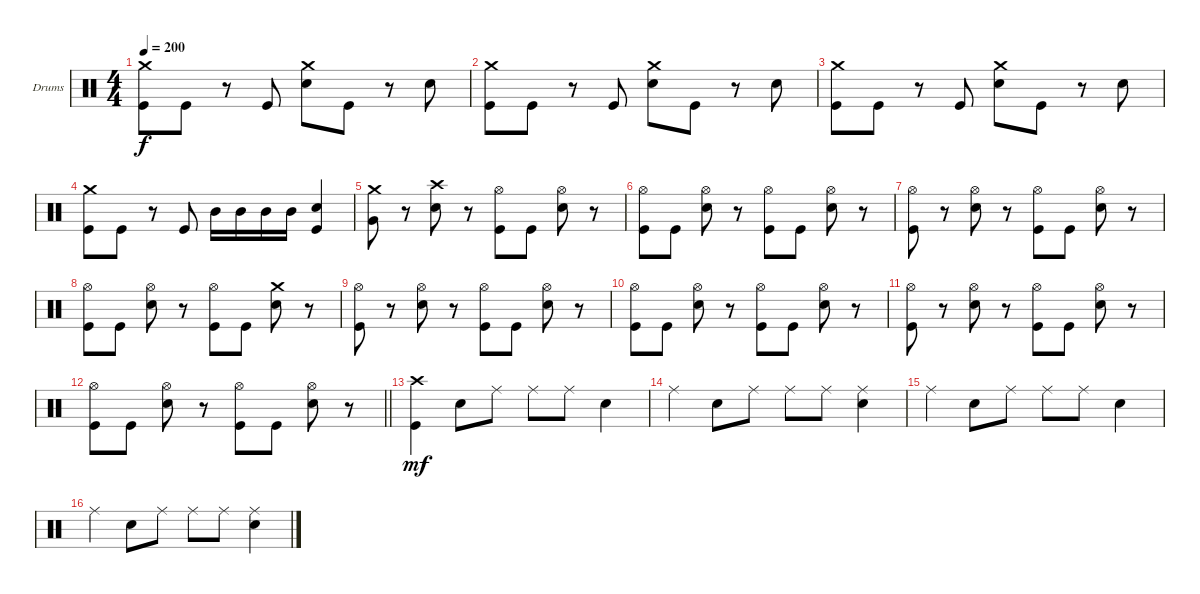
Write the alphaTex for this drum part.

\bracketExtendMode groupsimilarinstruments
\firstSystemTrackNameOrientation horizontal
\otherSystemsTrackNameOrientation horizontal
\track ("Drumkit" "Drums") {instrument percussion}
\staff {score}
\articulation defaults
\ts (4 4)
\tempo 200
\clef neutral
\ks c
("Crash medium (hit)" "Kick (hit)").8{dy f} "Kick (hit)".8 r.8 "Kick (hit)".8 ("Crash medium (hit)" "Snare (hit) 2").8 "Kick (hit)".8 r.8 "Snare (hit) 2".8 |
("Crash medium (hit)" "Kick (hit)").8 "Kick (hit)".8 r.8 "Kick (hit)".8 ("Crash medium (hit)" "Snare (hit) 2").8 "Kick (hit)".8 r.8 "Snare (hit) 2".8 |
("Crash medium (hit)" "Kick (hit)").8 "Kick (hit)".8 r.8 "Kick (hit)".8 ("Crash medium (hit)" "Snare (hit) 2").8 "Kick (hit)".8 r.8 "Snare (hit) 2".8 |
("Crash medium (hit)" "Kick (hit)").8 "Kick (hit)".8 r.8 "Kick (hit)".8 "Mid Tom (hit)".16 "Mid Tom (hit)".16 "Mid Tom (hit)".16 "Mid Tom (hit)".16 ("Snare (hit) 2" "Kick (hit)").4 |
("Crash medium (hit)" "Very Low Tom (hit)").8 r.8 ("Snare (hit) 2" "Crash high (hit)").8 r.8 ("Hi-Hat (open)" "Kick (hit)").8 "Kick (hit)".8 ("Snare (hit) 2" "Hi-Hat (open)").8 r.8 |
("Hi-Hat (open)" "Kick (hit)").8 "Kick (hit)".8 ("Snare (hit) 2" "Hi-Hat (open)").8 r.8 ("Hi-Hat (open)" "Kick (hit)").8 "Kick (hit)".8 ("Snare (hit) 2" "Hi-Hat (open)").8 r.8 |
("Hi-Hat (open)" "Kick (hit)").8 r.8 ("Snare (hit) 2" "Hi-Hat (open)").8 r.8 ("Hi-Hat (open)" "Kick (hit)").8 "Kick (hit)".8 ("Snare (hit) 2" "Hi-Hat (open)").8 r.8 |
("Hi-Hat (open)" "Kick (hit)").8 "Kick (hit)".8 ("Snare (hit) 2" "Hi-Hat (open)").8 r.8 ("Hi-Hat (open)" "Kick (hit)").8 "Kick (hit)".8 ("Snare (hit) 2" "Crash medium (hit)").8 r.8 |
("Hi-Hat (open)" "Kick (hit)").8 r.8 ("Snare (hit) 2" "Hi-Hat (open)").8 r.8 ("Hi-Hat (open)" "Kick (hit)").8 "Kick (hit)".8 ("Snare (hit) 2" "Hi-Hat (open)").8 r.8 |
("Hi-Hat (open)" "Kick (hit)").8 "Kick (hit)".8 ("Snare (hit) 2" "Hi-Hat (open)").8 r.8 ("Hi-Hat (open)" "Kick (hit)").8 "Kick (hit)".8 ("Snare (hit) 2" "Hi-Hat (open)").8 r.8 |
("Hi-Hat (open)" "Kick (hit)").8 r.8 ("Snare (hit) 2" "Hi-Hat (open)").8 r.8 ("Hi-Hat (open)" "Kick (hit)").8 "Kick (hit)".8 ("Snare (hit) 2" "Hi-Hat (open)").8 r.8 |
\barLineRight lightlight
("Hi-Hat (open)" "Kick (hit)").8 "Kick (hit)".8 ("Snare (hit) 2" "Hi-Hat (open)").8 r.8 ("Hi-Hat (open)" "Kick (hit)").8 "Kick (hit)".8 ("Snare (hit) 2" "Hi-Hat (open)").8 r.8 |
("Kick (hit)" "Crash high (hit)").4{dy mf} "Snare (hit) 2".8 "Ride (middle)".8 "Ride (middle)".8 "Ride (middle)".8 "Snare (hit) 2".4 |
"Ride (middle)".4 "Snare (hit) 2".8 "Ride (middle)".8 "Ride (middle)".8 "Ride (middle)".8 ("Ride (middle)" "Snare (hit) 2").4 |
"Ride (middle)".4 "Snare (hit) 2".8 "Ride (middle)".8 "Ride (middle)".8 "Ride (middle)".8 "Snare (hit) 2".4 |
"Ride (middle)".4 "Snare (hit) 2".8 "Ride (middle)".8 "Ride (middle)".8 "Ride (middle)".8 ("Ride (middle)" "Snare (hit) 2").4
